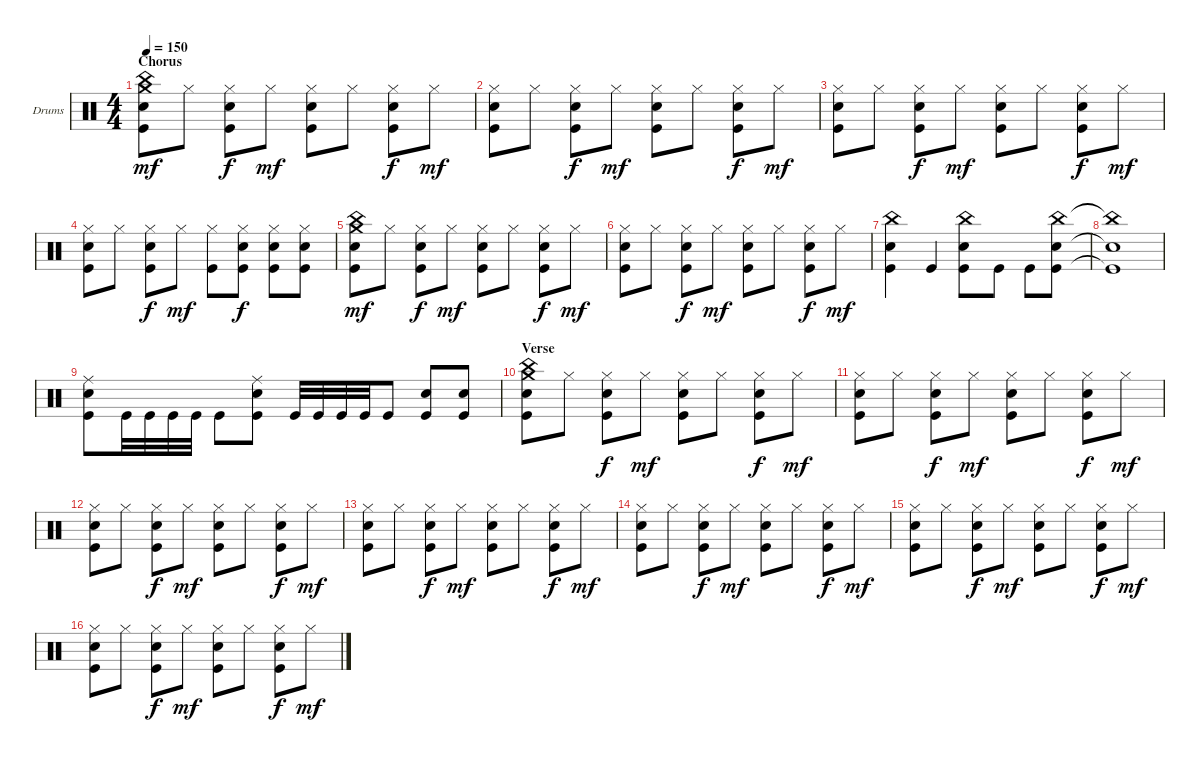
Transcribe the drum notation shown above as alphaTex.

\defaultSystemsLayout 4
\bracketExtendMode groupsimilarinstruments
\firstSystemTrackNameOrientation horizontal
\otherSystemsTrackNameOrientation horizontal
\track ("Drumkit" "Drums") {instrument percussion}
\staff {score}
\articulation defaults
\ts (4 4)
\section ("" "Chorus")
\tempo 150
\clef neutral
\ks c
("Snare (hit) 2" "Kick (hit)" "Crash medium (hit)" "China (hit)").8{dy mf} "Hi-Hat (closed)".8 ("Kick (hit)" "Snare (hit) 2" "Hi-Hat (closed)").8{dy f} "Hi-Hat (closed)".8{dy mf} ("Kick (hit)" "Snare (hit) 2" "Hi-Hat (closed)").8 "Hi-Hat (closed)".8 ("Kick (hit)" "Snare (hit) 2" "Hi-Hat (closed)").8{dy f} "Hi-Hat (closed)".8{dy mf} |
("Snare (hit) 2" "Kick (hit)" "Hi-Hat (closed)").8 "Hi-Hat (closed)".8 ("Kick (hit)" "Snare (hit) 2" "Hi-Hat (closed)").8{dy f} "Hi-Hat (closed)".8{dy mf} ("Kick (hit)" "Snare (hit) 2" "Hi-Hat (closed)").8 "Hi-Hat (closed)".8 ("Kick (hit)" "Snare (hit) 2" "Hi-Hat (closed)").8{dy f} "Hi-Hat (closed)".8{dy mf} |
("Snare (hit) 2" "Kick (hit)" "Hi-Hat (closed)").8 "Hi-Hat (closed)".8 ("Kick (hit)" "Snare (hit) 2" "Hi-Hat (closed)").8{dy f} "Hi-Hat (closed)".8{dy mf} ("Kick (hit)" "Snare (hit) 2" "Hi-Hat (closed)").8 "Hi-Hat (closed)".8 ("Kick (hit)" "Snare (hit) 2" "Hi-Hat (closed)").8{dy f} "Hi-Hat (closed)".8{dy mf} |
("Snare (hit) 2" "Kick (hit)" "Hi-Hat (closed)").8 "Hi-Hat (closed)".8 ("Kick (hit)" "Snare (hit) 2" "Hi-Hat (closed)").8{dy f} "Hi-Hat (closed)".8{dy mf} ("Kick (hit)" "Hi-Hat (closed)").8 ("Kick (hit)" "Snare (hit) 2" "Hi-Hat (closed)").8{dy f} ("Kick (hit)" "Snare (hit) 2" "Hi-Hat (closed)").8 ("Kick (hit)" "Snare (hit) 2" "Hi-Hat (closed)").8 |
("Snare (hit) 2" "Kick (hit)" "Crash medium (hit)" "China (hit)").8{dy mf} "Hi-Hat (closed)".8 ("Kick (hit)" "Snare (hit) 2" "Hi-Hat (closed)").8{dy f} "Hi-Hat (closed)".8{dy mf} ("Kick (hit)" "Snare (hit) 2" "Hi-Hat (closed)").8 "Hi-Hat (closed)".8 ("Kick (hit)" "Snare (hit) 2" "Hi-Hat (closed)").8{dy f} "Hi-Hat (closed)".8{dy mf} |
("Snare (hit) 2" "Kick (hit)" "Hi-Hat (closed)").8 "Hi-Hat (closed)".8 ("Kick (hit)" "Snare (hit) 2" "Hi-Hat (closed)").8{dy f} "Hi-Hat (closed)".8{dy mf} ("Kick (hit)" "Snare (hit) 2" "Hi-Hat (closed)").8 "Hi-Hat (closed)".8 ("Kick (hit)" "Snare (hit) 2" "Hi-Hat (closed)").8{dy f} "Hi-Hat (closed)".8{dy mf} |
("Kick (hit)" "Snare (hit) 2" "China (hit)").4 "Kick (hit)".4 ("Kick (hit)" "Snare (hit) 2" "China (hit)").8 "Kick (hit)".8 "Kick (hit)".8 ("Kick (hit)" "Snare (hit) 2" "China (hit)").8 |
("Kick (hit)"{t} "Snare (hit) 2"{t} "China (hit)"{t}).1 |
("Kick (hit)" "Snare (hit) 2" "Ride (middle)").8 "Kick (hit)".32 "Kick (hit)".32 "Kick (hit)".32 "Kick (hit)".32 "Kick (hit)".8 ("Kick (hit)" "Snare (hit) 2" "Ride (middle)").8 "Kick (hit)".32 "Kick (hit)".32 "Kick (hit)".32 "Kick (hit)".32 "Kick (hit)".8 ("Kick (hit)" "Snare (hit) 2").8 ("Kick (hit)" "Snare (hit) 2").8 |
\section ("" "Verse")
("Snare (hit) 2" "Kick (hit)" "Crash medium (hit)" "China (hit)").8 "Hi-Hat (closed)".8 ("Kick (hit)" "Snare (hit) 2" "Hi-Hat (closed)").8{dy f} "Hi-Hat (closed)".8{dy mf} ("Kick (hit)" "Snare (hit) 2" "Hi-Hat (closed)").8 "Hi-Hat (closed)".8 ("Kick (hit)" "Snare (hit) 2" "Hi-Hat (closed)").8{dy f} "Hi-Hat (closed)".8{dy mf} |
("Snare (hit) 2" "Kick (hit)" "Hi-Hat (closed)").8 "Hi-Hat (closed)".8 ("Kick (hit)" "Snare (hit) 2" "Hi-Hat (closed)").8{dy f} "Hi-Hat (closed)".8{dy mf} ("Kick (hit)" "Snare (hit) 2" "Hi-Hat (closed)").8 "Hi-Hat (closed)".8 ("Kick (hit)" "Snare (hit) 2" "Hi-Hat (closed)").8{dy f} "Hi-Hat (closed)".8{dy mf} |
("Snare (hit) 2" "Kick (hit)" "Hi-Hat (closed)").8 "Hi-Hat (closed)".8 ("Kick (hit)" "Snare (hit) 2" "Hi-Hat (closed)").8{dy f} "Hi-Hat (closed)".8{dy mf} ("Kick (hit)" "Snare (hit) 2" "Hi-Hat (closed)").8 "Hi-Hat (closed)".8 ("Kick (hit)" "Snare (hit) 2" "Hi-Hat (closed)").8{dy f} "Hi-Hat (closed)".8{dy mf} |
("Snare (hit) 2" "Kick (hit)" "Hi-Hat (closed)").8 "Hi-Hat (closed)".8 ("Kick (hit)" "Snare (hit) 2" "Hi-Hat (closed)").8{dy f} "Hi-Hat (closed)".8{dy mf} ("Kick (hit)" "Snare (hit) 2" "Hi-Hat (closed)").8 "Hi-Hat (closed)".8 ("Kick (hit)" "Snare (hit) 2" "Hi-Hat (closed)").8{dy f} "Hi-Hat (closed)".8{dy mf} |
("Snare (hit) 2" "Kick (hit)" "Hi-Hat (closed)").8 "Hi-Hat (closed)".8 ("Kick (hit)" "Snare (hit) 2" "Hi-Hat (closed)").8{dy f} "Hi-Hat (closed)".8{dy mf} ("Kick (hit)" "Snare (hit) 2" "Hi-Hat (closed)").8 "Hi-Hat (closed)".8 ("Kick (hit)" "Snare (hit) 2" "Hi-Hat (closed)").8{dy f} "Hi-Hat (closed)".8{dy mf} |
("Snare (hit) 2" "Kick (hit)" "Hi-Hat (closed)").8 "Hi-Hat (closed)".8 ("Kick (hit)" "Snare (hit) 2" "Hi-Hat (closed)").8{dy f} "Hi-Hat (closed)".8{dy mf} ("Kick (hit)" "Snare (hit) 2" "Hi-Hat (closed)").8 "Hi-Hat (closed)".8 ("Kick (hit)" "Snare (hit) 2" "Hi-Hat (closed)").8{dy f} "Hi-Hat (closed)".8{dy mf} |
("Snare (hit) 2" "Kick (hit)" "Hi-Hat (closed)").8 "Hi-Hat (closed)".8 ("Kick (hit)" "Snare (hit) 2" "Hi-Hat (closed)").8{dy f} "Hi-Hat (closed)".8{dy mf} ("Kick (hit)" "Snare (hit) 2" "Hi-Hat (closed)").8 "Hi-Hat (closed)".8 ("Kick (hit)" "Snare (hit) 2" "Hi-Hat (closed)").8{dy f} "Hi-Hat (closed)".8{dy mf}
